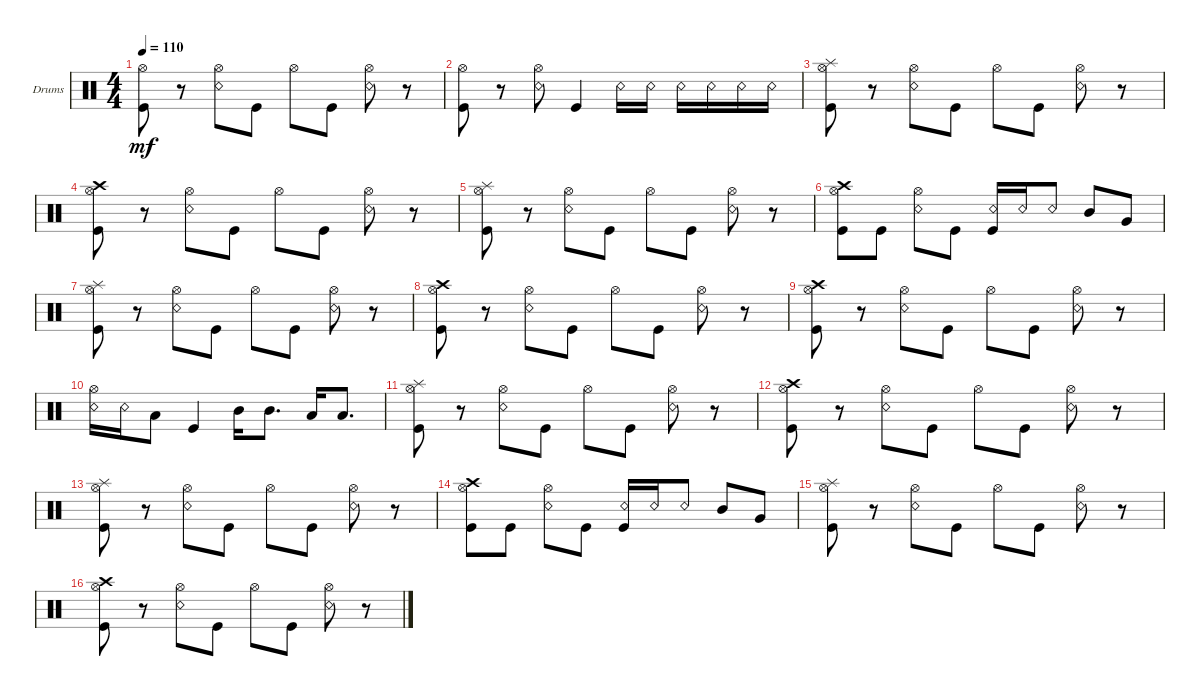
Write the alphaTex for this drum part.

\defaultSystemsLayout 4
\bracketExtendMode groupsimilarinstruments
\firstSystemTrackNameOrientation horizontal
\otherSystemsTrackNameOrientation horizontal
\track ("Drumkit" "Drums") {instrument percussion}
\staff {score}
\articulation defaults
\ts (4 4)
\tempo 110
\clef neutral
\ks c
("Kick (hit)" "Hi-Hat (open)").8{dy mf} r.8 ("Hi-Hat (open)" "Snare (rim shot)").8 "Kick (hit)".8 "Hi-Hat (open)".8 "Kick (hit)".8 ("Snare (rim shot)" "Hi-Hat (open)").8 r.8 |
("Kick (hit)" "Hi-Hat (open)").8 r.8 ("Hi-Hat (open)" "Snare (rim shot)").8 "Kick (hit)".4 "Snare (rim shot)".16 "Snare (rim shot)".16 "Snare (rim shot)".16 "Snare (rim shot)".16 "Snare (rim shot)".16 "Snare (rim shot)".16 |
("Kick (hit)" "Hi-Hat (open)" "Splash (hit)").8 r.8 ("Hi-Hat (open)" "Snare (rim shot)").8 "Kick (hit)".8 "Hi-Hat (open)".8 "Kick (hit)".8 ("Snare (rim shot)" "Hi-Hat (open)").8 r.8 |
("Kick (hit)" "Hi-Hat (open)" "Crash high (hit)").8 r.8 ("Hi-Hat (open)" "Snare (rim shot)").8 "Kick (hit)".8 "Hi-Hat (open)".8 "Kick (hit)".8 ("Snare (rim shot)" "Hi-Hat (open)").8 r.8 |
("Kick (hit)" "Hi-Hat (open)" "Splash (hit)").8 r.8 ("Hi-Hat (open)" "Snare (rim shot)").8 "Kick (hit)".8 "Hi-Hat (open)".8 "Kick (hit)".8 ("Snare (rim shot)" "Hi-Hat (open)").8 r.8 |
("Kick (hit)" "Hi-Hat (open)" "Crash high (hit)").8 "Kick (hit)".8 ("Snare (rim shot)" "Hi-Hat (open)").8 "Kick (hit)".8 ("Snare (rim shot)" "Kick (hit)").16 "Snare (rim shot)".16 "Snare (rim shot)".8 "Mid Tom (hit)".8 "Very Low Tom (hit)".8 |
("Kick (hit)" "Hi-Hat (open)" "Splash (hit)").8 r.8 ("Hi-Hat (open)" "Snare (rim shot)").8 "Kick (hit)".8 "Hi-Hat (open)".8 "Kick (hit)".8 ("Snare (rim shot)" "Hi-Hat (open)").8 r.8 |
("Kick (hit)" "Hi-Hat (open)" "Crash high (hit)").8 r.8 ("Hi-Hat (open)" "Snare (rim shot)").8 "Kick (hit)".8 "Hi-Hat (open)".8 "Kick (hit)".8 ("Snare (rim shot)" "Hi-Hat (open)").8 r.8 |
("Kick (hit)" "Hi-Hat (open)" "Crash high (hit)").8 r.8 ("Hi-Hat (open)" "Snare (rim shot)").8 "Kick (hit)".8 "Hi-Hat (open)".8 "Kick (hit)".8 ("Snare (rim shot)" "Hi-Hat (open)").8 r.8 |
("Snare (rim shot)" "Hi-Hat (open)").16 "Snare (rim shot)".16 "Low Tom (hit)".8 "Kick (hit)".4 "Mid Tom (hit)".16 "Mid Tom (hit)".8{d} "Low Tom (hit)".16 "Low Tom (hit)".8{d} |
("Kick (hit)" "Hi-Hat (open)" "Splash (hit)").8 r.8 ("Hi-Hat (open)" "Snare (rim shot)").8 "Kick (hit)".8 "Hi-Hat (open)".8 "Kick (hit)".8 ("Snare (rim shot)" "Hi-Hat (open)").8 r.8 |
("Kick (hit)" "Hi-Hat (open)" "Crash high (hit)").8 r.8 ("Hi-Hat (open)" "Snare (rim shot)").8 "Kick (hit)".8 "Hi-Hat (open)".8 "Kick (hit)".8 ("Snare (rim shot)" "Hi-Hat (open)").8 r.8 |
("Kick (hit)" "Hi-Hat (open)" "Splash (hit)").8 r.8 ("Hi-Hat (open)" "Snare (rim shot)").8 "Kick (hit)".8 "Hi-Hat (open)".8 "Kick (hit)".8 ("Snare (rim shot)" "Hi-Hat (open)").8 r.8 |
("Kick (hit)" "Hi-Hat (open)" "Crash high (hit)").8 "Kick (hit)".8 ("Snare (rim shot)" "Hi-Hat (open)").8 "Kick (hit)".8 ("Snare (rim shot)" "Kick (hit)").16 "Snare (rim shot)".16 "Snare (rim shot)".8 "Mid Tom (hit)".8 "Very Low Tom (hit)".8 |
("Kick (hit)" "Hi-Hat (open)" "Splash (hit)").8 r.8 ("Hi-Hat (open)" "Snare (rim shot)").8 "Kick (hit)".8 "Hi-Hat (open)".8 "Kick (hit)".8 ("Snare (rim shot)" "Hi-Hat (open)").8 r.8 |
("Kick (hit)" "Hi-Hat (open)" "Crash high (hit)").8 r.8 ("Hi-Hat (open)" "Snare (rim shot)").8 "Kick (hit)".8 "Hi-Hat (open)".8 "Kick (hit)".8 ("Snare (rim shot)" "Hi-Hat (open)").8 r.8
